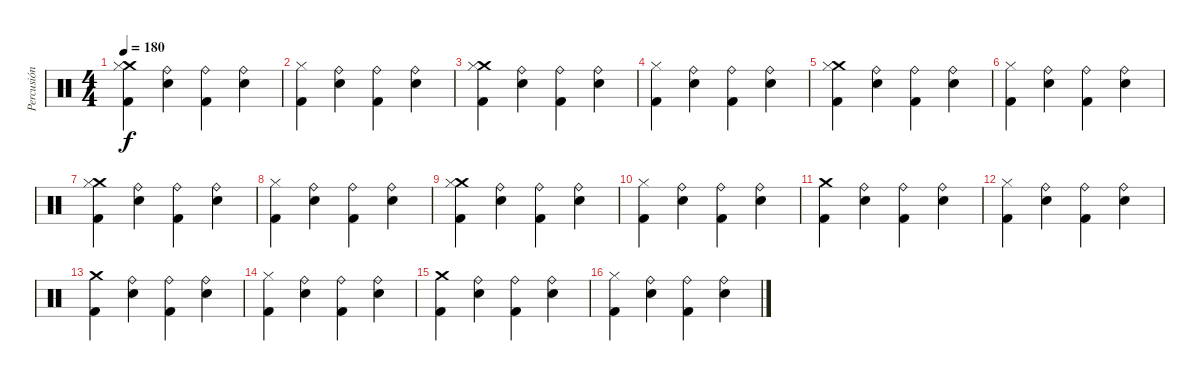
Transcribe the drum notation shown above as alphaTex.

\track ("Percusión" "Percusión") {instrument percussion}
\staff {score}
\articulation defaults
\ts (4 4)
\tempo 180
\clef neutral
\ks c
("Crash medium (hit)" "Hi-Hat (closed)" "Kick (hit) 2").4{dy f} ("Ride (bell)" "Electric Snare (hit)").4 ("Ride (bell)" "Kick (hit) 2").4 ("Ride (bell)" "Electric Snare (hit)").4 |
("Hi-Hat (closed)" "Kick (hit) 2").4 ("Ride (bell)" "Electric Snare (hit)").4 ("Ride (bell)" "Kick (hit) 2").4 ("Ride (bell)" "Electric Snare (hit)").4 |
("Crash medium (hit)" "Hi-Hat (closed)" "Kick (hit) 2").4 ("Ride (bell)" "Electric Snare (hit)").4 ("Ride (bell)" "Kick (hit) 2").4 ("Ride (bell)" "Electric Snare (hit)").4 |
("Hi-Hat (closed)" "Kick (hit) 2").4 ("Ride (bell)" "Electric Snare (hit)").4 ("Ride (bell)" "Kick (hit) 2").4 ("Ride (bell)" "Electric Snare (hit)").4 |
("Crash medium (hit)" "Hi-Hat (closed)" "Kick (hit) 2").4 ("Ride (bell)" "Electric Snare (hit)").4 ("Ride (bell)" "Kick (hit) 2").4 ("Ride (bell)" "Electric Snare (hit)").4 |
("Hi-Hat (closed)" "Kick (hit) 2").4 ("Ride (bell)" "Electric Snare (hit)").4 ("Ride (bell)" "Kick (hit) 2").4 ("Ride (bell)" "Electric Snare (hit)").4 |
("Crash medium (hit)" "Hi-Hat (closed)" "Kick (hit) 2").4 ("Ride (bell)" "Electric Snare (hit)").4 ("Ride (bell)" "Kick (hit) 2").4 ("Ride (bell)" "Electric Snare (hit)").4 |
("Hi-Hat (closed)" "Kick (hit) 2").4 ("Ride (bell)" "Electric Snare (hit)").4 ("Ride (bell)" "Kick (hit) 2").4 ("Ride (bell)" "Electric Snare (hit)").4 |
("Crash medium (hit)" "Hi-Hat (closed)" "Kick (hit) 2").4 ("Ride (bell)" "Electric Snare (hit)").4 ("Ride (bell)" "Kick (hit) 2").4 ("Ride (bell)" "Electric Snare (hit)").4 |
("Hi-Hat (closed)" "Kick (hit) 2").4 ("Ride (bell)" "Electric Snare (hit)").4 ("Ride (bell)" "Kick (hit) 2").4 ("Ride (bell)" "Electric Snare (hit)").4 |
("Crash medium (hit)" "Kick (hit) 2").4 ("Ride (bell)" "Electric Snare (hit)").4 ("Ride (bell)" "Kick (hit) 2").4 ("Ride (bell)" "Electric Snare (hit)").4 |
("Hi-Hat (closed)" "Kick (hit) 2").4 ("Ride (bell)" "Electric Snare (hit)").4 ("Ride (bell)" "Kick (hit) 2").4 ("Ride (bell)" "Electric Snare (hit)").4 |
("Crash medium (hit)" "Kick (hit) 2").4 ("Ride (bell)" "Electric Snare (hit)").4 ("Ride (bell)" "Kick (hit) 2").4 ("Ride (bell)" "Electric Snare (hit)").4 |
("Hi-Hat (closed)" "Kick (hit) 2").4 ("Ride (bell)" "Electric Snare (hit)").4 ("Ride (bell)" "Kick (hit) 2").4 ("Ride (bell)" "Electric Snare (hit)").4 |
("Crash medium (hit)" "Kick (hit) 2").4 ("Ride (bell)" "Electric Snare (hit)").4 ("Ride (bell)" "Kick (hit) 2").4 ("Ride (bell)" "Electric Snare (hit)").4 |
("Hi-Hat (closed)" "Kick (hit) 2").4 ("Ride (bell)" "Electric Snare (hit)").4 ("Ride (bell)" "Kick (hit) 2").4 ("Ride (bell)" "Electric Snare (hit)").4
